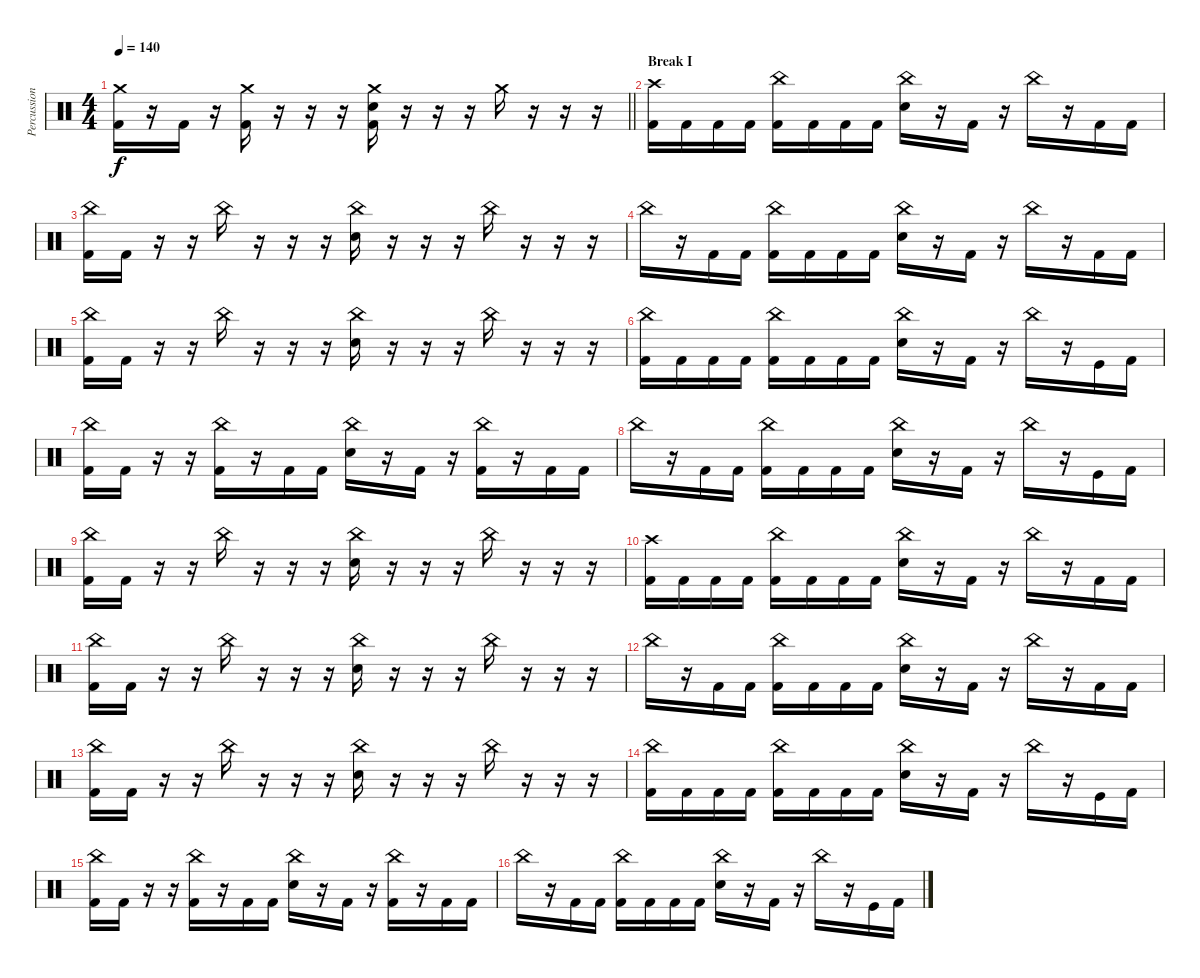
\track ("Percussion" "Percussion") {instrument percussion}
\staff {score}
\articulation defaults
\ts (4 4)
\tempo 140
\clef neutral
\barLineRight lightlight
\ks c
("Crash medium (hit)" "Kick (hit) 2").16{dy f} r.16 "Kick (hit) 2".16 r.16 ("Crash medium (hit)" "Kick (hit) 2").16 r.16 r.16 r.16 ("Crash medium (hit)" "Electric Snare (hit)" "Kick (hit) 2").16 r.16 r.16 r.16 "Crash medium (hit)".16 r.16 r.16 r.16 |
\section ("" "Break I")
("Crash high (hit)" "Kick (hit) 2").16 "Kick (hit) 2".16 "Kick (hit) 2".16 "Kick (hit) 2".16 ("China (hit)" "Kick (hit) 2").16 "Kick (hit) 2".16 "Kick (hit) 2".16 "Kick (hit) 2".16 ("China (hit)" "Electric Snare (hit)").16 r.16 "Kick (hit) 2".16 r.16 "China (hit)".16 r.16 "Kick (hit) 2".16 "Kick (hit) 2".16 |
("China (hit)" "Kick (hit) 2").16 "Kick (hit) 2".16 r.16 r.16 "China (hit)".16 r.16 r.16 r.16 ("China (hit)" "Electric Snare (hit)").16 r.16 r.16 r.16 "China (hit)".16 r.16 r.16 r.16 |
"China (hit)".16 r.16 "Kick (hit) 2".16 "Kick (hit) 2".16 ("China (hit)" "Kick (hit) 2").16 "Kick (hit) 2".16 "Kick (hit) 2".16 "Kick (hit) 2".16 ("China (hit)" "Electric Snare (hit)").16 r.16 "Kick (hit) 2".16 r.16 "China (hit)".16 r.16 "Kick (hit) 2".16 "Kick (hit) 2".16 |
("China (hit)" "Kick (hit) 2").16 "Kick (hit) 2".16 r.16 r.16 "China (hit)".16 r.16 r.16 r.16 ("China (hit)" "Electric Snare (hit)").16 r.16 r.16 r.16 "China (hit)".16 r.16 r.16 r.16 |
("China (hit)" "Kick (hit) 2").16 "Kick (hit) 2".16 "Kick (hit) 2".16 "Kick (hit) 2".16 ("China (hit)" "Kick (hit) 2").16 "Kick (hit) 2".16 "Kick (hit) 2".16 "Kick (hit) 2".16 ("China (hit)" "Electric Snare (hit)").16 r.16 "Kick (hit) 2".16 r.16 "China (hit)".16 r.16 "Kick (hit)".16 "Kick (hit) 2".16 |
("China (hit)" "Kick (hit) 2").16 "Kick (hit) 2".16 r.16 r.16 ("China (hit)" "Kick (hit) 2").16 r.16 "Kick (hit) 2".16 "Kick (hit) 2".16 ("China (hit)" "Electric Snare (hit)").16 r.16 "Kick (hit) 2".16 r.16 ("China (hit)" "Kick (hit) 2").16 r.16 "Kick (hit) 2".16 "Kick (hit) 2".16 |
"China (hit)".16 r.16 "Kick (hit) 2".16 "Kick (hit) 2".16 ("China (hit)" "Kick (hit) 2").16 "Kick (hit) 2".16 "Kick (hit) 2".16 "Kick (hit) 2".16 ("China (hit)" "Electric Snare (hit)").16 r.16 "Kick (hit) 2".16 r.16 "China (hit)".16 r.16 "Kick (hit)".16 "Kick (hit) 2".16 |
("China (hit)" "Kick (hit) 2").16 "Kick (hit) 2".16 r.16 r.16 "China (hit)".16 r.16 r.16 r.16 ("China (hit)" "Electric Snare (hit)").16 r.16 r.16 r.16 "China (hit)".16 r.16 r.16 r.16 |
("Crash high (hit)" "Kick (hit) 2").16 "Kick (hit) 2".16 "Kick (hit) 2".16 "Kick (hit) 2".16 ("China (hit)" "Kick (hit) 2").16 "Kick (hit) 2".16 "Kick (hit) 2".16 "Kick (hit) 2".16 ("China (hit)" "Electric Snare (hit)").16 r.16 "Kick (hit) 2".16 r.16 "China (hit)".16 r.16 "Kick (hit) 2".16 "Kick (hit) 2".16 |
("China (hit)" "Kick (hit) 2").16 "Kick (hit) 2".16 r.16 r.16 "China (hit)".16 r.16 r.16 r.16 ("China (hit)" "Electric Snare (hit)").16 r.16 r.16 r.16 "China (hit)".16 r.16 r.16 r.16 |
"China (hit)".16 r.16 "Kick (hit) 2".16 "Kick (hit) 2".16 ("China (hit)" "Kick (hit) 2").16 "Kick (hit) 2".16 "Kick (hit) 2".16 "Kick (hit) 2".16 ("China (hit)" "Electric Snare (hit)").16 r.16 "Kick (hit) 2".16 r.16 "China (hit)".16 r.16 "Kick (hit) 2".16 "Kick (hit) 2".16 |
("China (hit)" "Kick (hit) 2").16 "Kick (hit) 2".16 r.16 r.16 "China (hit)".16 r.16 r.16 r.16 ("China (hit)" "Electric Snare (hit)").16 r.16 r.16 r.16 "China (hit)".16 r.16 r.16 r.16 |
("China (hit)" "Kick (hit) 2").16 "Kick (hit) 2".16 "Kick (hit) 2".16 "Kick (hit) 2".16 ("China (hit)" "Kick (hit) 2").16 "Kick (hit) 2".16 "Kick (hit) 2".16 "Kick (hit) 2".16 ("China (hit)" "Electric Snare (hit)").16 r.16 "Kick (hit) 2".16 r.16 "China (hit)".16 r.16 "Kick (hit)".16 "Kick (hit) 2".16 |
("China (hit)" "Kick (hit) 2").16 "Kick (hit) 2".16 r.16 r.16 ("China (hit)" "Kick (hit) 2").16 r.16 "Kick (hit) 2".16 "Kick (hit) 2".16 ("China (hit)" "Electric Snare (hit)").16 r.16 "Kick (hit) 2".16 r.16 ("China (hit)" "Kick (hit) 2").16 r.16 "Kick (hit) 2".16 "Kick (hit) 2".16 |
"China (hit)".16 r.16 "Kick (hit) 2".16 "Kick (hit) 2".16 ("China (hit)" "Kick (hit) 2").16 "Kick (hit) 2".16 "Kick (hit) 2".16 "Kick (hit) 2".16 ("China (hit)" "Electric Snare (hit)").16 r.16 "Kick (hit) 2".16 r.16 "China (hit)".16 r.16 "Kick (hit)".16 "Kick (hit) 2".16
